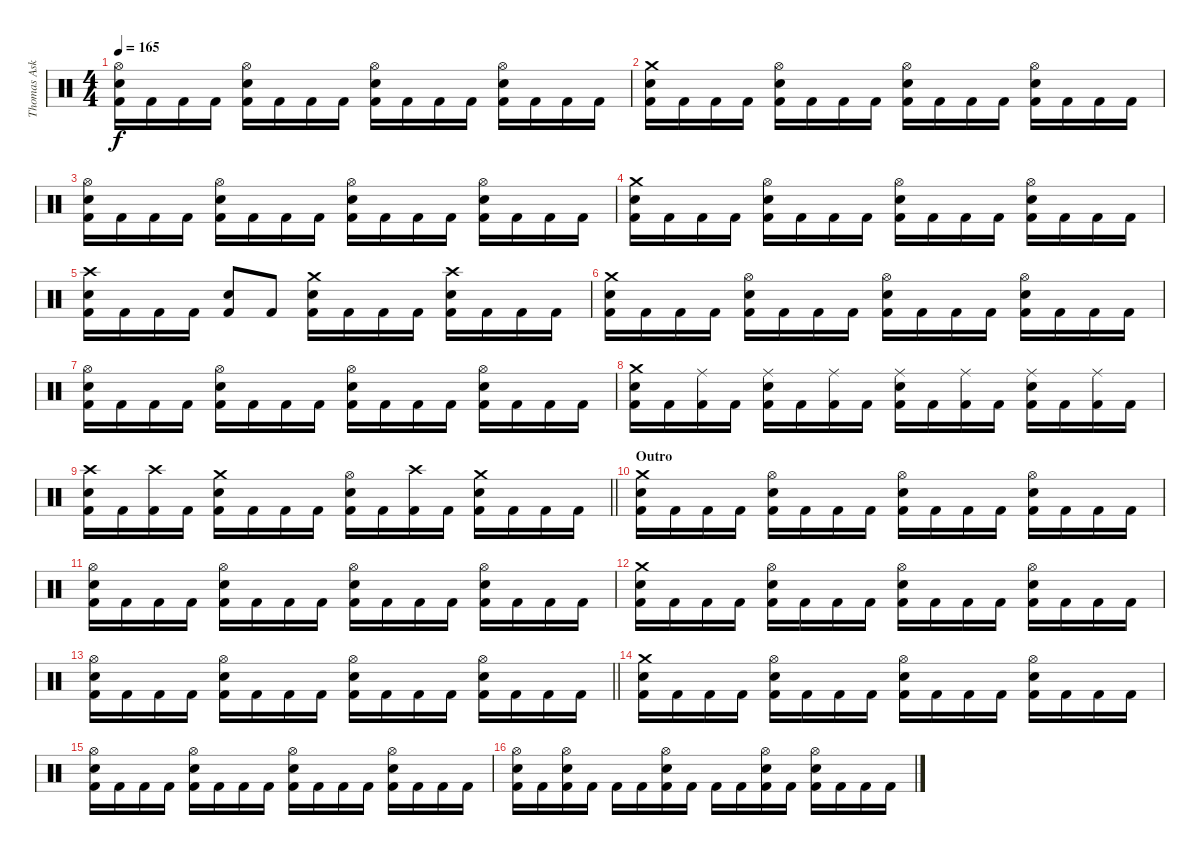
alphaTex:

\track ("Thomas Asklund" "Thomas Ask") {instrument percussion}
\staff {score}
\articulation defaults
\ts (4 4)
\tempo 165
\clef neutral
\ks c
("Hi-Hat (open)" "Electric Snare (hit)" "Kick (hit) 2").16{dy f} "Kick (hit) 2".16 "Kick (hit) 2".16 "Kick (hit) 2".16 ("Hi-Hat (open)" "Electric Snare (hit)" "Kick (hit) 2").16 "Kick (hit) 2".16 "Kick (hit) 2".16 "Kick (hit) 2".16 ("Hi-Hat (open)" "Electric Snare (hit)" "Kick (hit) 2").16 "Kick (hit) 2".16 "Kick (hit) 2".16 "Kick (hit) 2".16 ("Hi-Hat (open)" "Electric Snare (hit)" "Kick (hit) 2").16 "Kick (hit) 2".16 "Kick (hit) 2".16 "Kick (hit) 2".16 |
("Crash medium (hit)" "Electric Snare (hit)" "Kick (hit) 2").16 "Kick (hit) 2".16 "Kick (hit) 2".16 "Kick (hit) 2".16 ("Hi-Hat (open)" "Electric Snare (hit)" "Kick (hit) 2").16 "Kick (hit) 2".16 "Kick (hit) 2".16 "Kick (hit) 2".16 ("Hi-Hat (open)" "Electric Snare (hit)" "Kick (hit) 2").16 "Kick (hit) 2".16 "Kick (hit) 2".16 "Kick (hit) 2".16 ("Hi-Hat (open)" "Electric Snare (hit)" "Kick (hit) 2").16 "Kick (hit) 2".16 "Kick (hit) 2".16 "Kick (hit) 2".16 |
("Hi-Hat (open)" "Electric Snare (hit)" "Kick (hit) 2").16 "Kick (hit) 2".16 "Kick (hit) 2".16 "Kick (hit) 2".16 ("Hi-Hat (open)" "Electric Snare (hit)" "Kick (hit) 2").16 "Kick (hit) 2".16 "Kick (hit) 2".16 "Kick (hit) 2".16 ("Hi-Hat (open)" "Electric Snare (hit)" "Kick (hit) 2").16 "Kick (hit) 2".16 "Kick (hit) 2".16 "Kick (hit) 2".16 ("Hi-Hat (open)" "Electric Snare (hit)" "Kick (hit) 2").16 "Kick (hit) 2".16 "Kick (hit) 2".16 "Kick (hit) 2".16 |
("Crash medium (hit)" "Electric Snare (hit)" "Kick (hit) 2").16 "Kick (hit) 2".16 "Kick (hit) 2".16 "Kick (hit) 2".16 ("Hi-Hat (open)" "Electric Snare (hit)" "Kick (hit) 2").16 "Kick (hit) 2".16 "Kick (hit) 2".16 "Kick (hit) 2".16 ("Hi-Hat (open)" "Electric Snare (hit)" "Kick (hit) 2").16 "Kick (hit) 2".16 "Kick (hit) 2".16 "Kick (hit) 2".16 ("Hi-Hat (open)" "Electric Snare (hit)" "Kick (hit) 2").16 "Kick (hit) 2".16 "Kick (hit) 2".16 "Kick (hit) 2".16 |
("Crash high (hit)" "Electric Snare (hit)" "Kick (hit) 2").16 "Kick (hit) 2".16 "Kick (hit) 2".16 "Kick (hit) 2".16 ("Electric Snare (hit)" "Kick (hit) 2").8 "Kick (hit) 2".8 ("Crash medium (hit)" "Electric Snare (hit)" "Kick (hit) 2").16 "Kick (hit) 2".16 "Kick (hit) 2".16 "Kick (hit) 2".16 ("Crash high (hit)" "Electric Snare (hit)" "Kick (hit) 2").16 "Kick (hit) 2".16 "Kick (hit) 2".16 "Kick (hit) 2".16 |
("Crash medium (hit)" "Electric Snare (hit)" "Kick (hit) 2").16 "Kick (hit) 2".16 "Kick (hit) 2".16 "Kick (hit) 2".16 ("Hi-Hat (open)" "Electric Snare (hit)" "Kick (hit) 2").16 "Kick (hit) 2".16 "Kick (hit) 2".16 "Kick (hit) 2".16 ("Hi-Hat (open)" "Electric Snare (hit)" "Kick (hit) 2").16 "Kick (hit) 2".16 "Kick (hit) 2".16 "Kick (hit) 2".16 ("Hi-Hat (open)" "Electric Snare (hit)" "Kick (hit) 2").16 "Kick (hit) 2".16 "Kick (hit) 2".16 "Kick (hit) 2".16 |
("Hi-Hat (open)" "Electric Snare (hit)" "Kick (hit) 2").16 "Kick (hit) 2".16 "Kick (hit) 2".16 "Kick (hit) 2".16 ("Hi-Hat (open)" "Electric Snare (hit)" "Kick (hit) 2").16 "Kick (hit) 2".16 "Kick (hit) 2".16 "Kick (hit) 2".16 ("Hi-Hat (open)" "Electric Snare (hit)" "Kick (hit) 2").16 "Kick (hit) 2".16 "Kick (hit) 2".16 "Kick (hit) 2".16 ("Hi-Hat (open)" "Electric Snare (hit)" "Kick (hit) 2").16 "Kick (hit) 2".16 "Kick (hit) 2".16 "Kick (hit) 2".16 |
("Crash medium (hit)" "Electric Snare (hit)" "Kick (hit) 2").16 "Kick (hit) 2".16 ("Ride (middle)" "Kick (hit) 2").16 "Kick (hit) 2".16 ("Ride (middle)" "Electric Snare (hit)" "Kick (hit) 2").16 "Kick (hit) 2".16 ("Ride (middle)" "Kick (hit) 2").16 "Kick (hit) 2".16 ("Ride (middle)" "Electric Snare (hit)" "Kick (hit) 2").16 "Kick (hit) 2".16 ("Ride (middle)" "Kick (hit) 2").16 "Kick (hit) 2".16 ("Ride (middle)" "Electric Snare (hit)" "Kick (hit) 2").16 "Kick (hit) 2".16 ("Ride (middle)" "Kick (hit) 2").16 "Kick (hit) 2".16 |
\barLineRight lightlight
("Crash high (hit)" "Electric Snare (hit)" "Kick (hit) 2").16 "Kick (hit) 2".16 ("Crash high (hit)" "Kick (hit) 2").16 "Kick (hit) 2".16 ("Crash medium (hit)" "Electric Snare (hit)" "Kick (hit) 2").16 "Kick (hit) 2".16 "Kick (hit) 2".16 "Kick (hit) 2".16 ("Hi-Hat (open)" "Electric Snare (hit)" "Kick (hit) 2").16 "Kick (hit) 2".16 ("Crash high (hit)" "Kick (hit) 2").16 "Kick (hit) 2".16 ("Crash medium (hit)" "Electric Snare (hit)" "Kick (hit) 2").16 "Kick (hit) 2".16 "Kick (hit) 2".16 "Kick (hit) 2".16 |
\section ("" "Outro")
("Crash medium (hit)" "Electric Snare (hit)" "Kick (hit) 2").16 "Kick (hit) 2".16 "Kick (hit) 2".16 "Kick (hit) 2".16 ("Hi-Hat (open)" "Electric Snare (hit)" "Kick (hit) 2").16 "Kick (hit) 2".16 "Kick (hit) 2".16 "Kick (hit) 2".16 ("Hi-Hat (open)" "Electric Snare (hit)" "Kick (hit) 2").16 "Kick (hit) 2".16 "Kick (hit) 2".16 "Kick (hit) 2".16 ("Hi-Hat (open)" "Electric Snare (hit)" "Kick (hit) 2").16 "Kick (hit) 2".16 "Kick (hit) 2".16 "Kick (hit) 2".16 |
("Hi-Hat (open)" "Electric Snare (hit)" "Kick (hit) 2").16 "Kick (hit) 2".16 "Kick (hit) 2".16 "Kick (hit) 2".16 ("Hi-Hat (open)" "Electric Snare (hit)" "Kick (hit) 2").16 "Kick (hit) 2".16 "Kick (hit) 2".16 "Kick (hit) 2".16 ("Hi-Hat (open)" "Electric Snare (hit)" "Kick (hit) 2").16 "Kick (hit) 2".16 "Kick (hit) 2".16 "Kick (hit) 2".16 ("Hi-Hat (open)" "Electric Snare (hit)" "Kick (hit) 2").16 "Kick (hit) 2".16 "Kick (hit) 2".16 "Kick (hit) 2".16 |
("Crash medium (hit)" "Electric Snare (hit)" "Kick (hit) 2").16 "Kick (hit) 2".16 "Kick (hit) 2".16 "Kick (hit) 2".16 ("Hi-Hat (open)" "Electric Snare (hit)" "Kick (hit) 2").16 "Kick (hit) 2".16 "Kick (hit) 2".16 "Kick (hit) 2".16 ("Hi-Hat (open)" "Electric Snare (hit)" "Kick (hit) 2").16 "Kick (hit) 2".16 "Kick (hit) 2".16 "Kick (hit) 2".16 ("Hi-Hat (open)" "Electric Snare (hit)" "Kick (hit) 2").16 "Kick (hit) 2".16 "Kick (hit) 2".16 "Kick (hit) 2".16 |
\barLineRight lightlight
("Hi-Hat (open)" "Electric Snare (hit)" "Kick (hit) 2").16 "Kick (hit) 2".16 "Kick (hit) 2".16 "Kick (hit) 2".16 ("Hi-Hat (open)" "Electric Snare (hit)" "Kick (hit) 2").16 "Kick (hit) 2".16 "Kick (hit) 2".16 "Kick (hit) 2".16 ("Hi-Hat (open)" "Electric Snare (hit)" "Kick (hit) 2").16 "Kick (hit) 2".16 "Kick (hit) 2".16 "Kick (hit) 2".16 ("Hi-Hat (open)" "Electric Snare (hit)" "Kick (hit) 2").16 "Kick (hit) 2".16 "Kick (hit) 2".16 "Kick (hit) 2".16 |
("Crash medium (hit)" "Electric Snare (hit)" "Kick (hit) 2").16 "Kick (hit) 2".16 "Kick (hit) 2".16 "Kick (hit) 2".16 ("Hi-Hat (open)" "Electric Snare (hit)" "Kick (hit) 2").16 "Kick (hit) 2".16 "Kick (hit) 2".16 "Kick (hit) 2".16 ("Hi-Hat (open)" "Electric Snare (hit)" "Kick (hit) 2").16 "Kick (hit) 2".16 "Kick (hit) 2".16 "Kick (hit) 2".16 ("Hi-Hat (open)" "Electric Snare (hit)" "Kick (hit) 2").16 "Kick (hit) 2".16 "Kick (hit) 2".16 "Kick (hit) 2".16 |
("Hi-Hat (open)" "Electric Snare (hit)" "Kick (hit) 2").16 "Kick (hit) 2".16 "Kick (hit) 2".16 "Kick (hit) 2".16 ("Hi-Hat (open)" "Electric Snare (hit)" "Kick (hit) 2").16 "Kick (hit) 2".16 "Kick (hit) 2".16 "Kick (hit) 2".16 ("Hi-Hat (open)" "Electric Snare (hit)" "Kick (hit) 2").16 "Kick (hit) 2".16 "Kick (hit) 2".16 "Kick (hit) 2".16 ("Hi-Hat (open)" "Electric Snare (hit)" "Kick (hit) 2").16 "Kick (hit) 2".16 "Kick (hit) 2".16 "Kick (hit) 2".16 |
("Hi-Hat (open)" "Electric Snare (hit)" "Kick (hit) 2").16 "Kick (hit) 2".16 ("Hi-Hat (open)" "Electric Snare (hit)" "Kick (hit) 2").16 "Kick (hit) 2".16 "Kick (hit) 2".16 "Kick (hit) 2".16 ("Hi-Hat (open)" "Electric Snare (hit)" "Kick (hit) 2").16 "Kick (hit) 2".16 "Kick (hit) 2".16 "Kick (hit) 2".16 ("Hi-Hat (open)" "Electric Snare (hit)" "Kick (hit) 2").16 "Kick (hit) 2".16 ("Hi-Hat (open)" "Electric Snare (hit)" "Kick (hit) 2").16 "Kick (hit) 2".16 "Kick (hit) 2".16 "Kick (hit) 2".16
